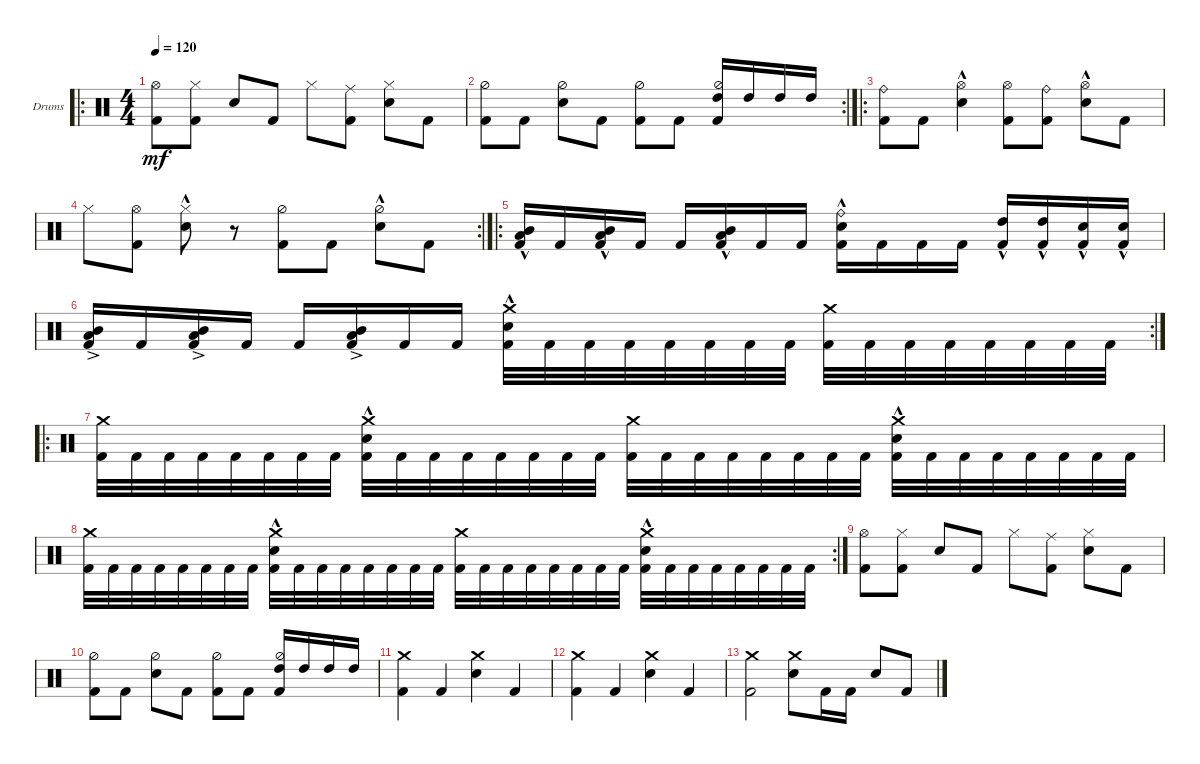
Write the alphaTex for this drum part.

\defaultSystemsLayout 4
\bracketExtendMode groupsimilarinstruments
\firstSystemTrackNameOrientation horizontal
\otherSystemsTrackNameOrientation horizontal
\track ("Drumkit" "Drums") {instrument percussion}
\staff {score}
\articulation defaults
\ro
\ts (4 4)
\tempo 120
\clef neutral
\ks c
("Hi-Hat (open)" "Kick (hit) 2").8{dy mf} ("Hi-Hat (closed)" "Kick (hit) 2").8 "Snare (hit) 2".8 "Kick (hit) 2".8 "Hi-Hat (closed)".8 ("Ride (middle)" "Kick (hit) 2").8 ("Hi-Hat (closed)" "Snare (hit) 2").8 "Kick (hit) 2".8 |
\rc 2
("Kick (hit) 2" "Hi-Hat (half)").8 "Kick (hit) 2".8 ("Snare (hit) 2" "Hi-Hat (half)").8 "Kick (hit) 2".8 ("Kick (hit) 2" "Hi-Hat (half)").8 "Kick (hit) 2".8 ("Hi-Hat (half)" "Kick (hit) 2" "High Tom (hit)").16 "High Tom (hit)".16 "High Tom (hit)".16 "High Tom (hit)".16 |
\ro
("Kick (hit) 2" "Ride (bell)").8 "Kick (hit) 2".8 ("Snare (hit) 2"{hac} "Hi-Hat (open)").4 ("Kick (hit) 2" "Hi-Hat (open)").8 ("Kick (hit) 2" "Ride (bell)").8 ("Hi-Hat (open)" "Snare (hit) 2"{hac}).8 "Kick (hit) 2".8 |
\rc 2 "Hi-Hat (closed)".8
("Hi-Hat (open)" "Kick (hit) 2").8 ("Snare (hit) 2"{hac} "Hi-Hat (closed)").8 r.8 ("Kick (hit) 2" "Hi-Hat (half)").8 "Kick (hit) 2".8 ("Snare (hit) 2"{hac} "Hi-Hat (half)").8 "Kick (hit) 2".8 |
\ro
("Kick (hit) 2" "Low Tom (hit)"{hac} "Mid Tom (hit)"{hac}).16 "Kick (hit) 2".16 ("Kick (hit) 2" "Low Tom (hit)"{hac} "Mid Tom (hit)"{hac}).16 "Kick (hit) 2".16 "Kick (hit) 2".16 ("Kick (hit) 2" "Low Tom (hit)"{hac} "Mid Tom (hit)"{hac}).16 "Kick (hit) 2".16 "Kick (hit) 2".16 ("Kick (hit) 2" "Snare (hit) 2"{hac} "Ride (bell)").16 "Kick (hit) 2".16 "Kick (hit) 2".16 "Kick (hit) 2".16 ("Kick (hit) 2" "High Tom (hit)"{hac}).16 ("Kick (hit) 2" "High Tom (hit)"{hac}).16 ("Kick (hit) 2" "Snare (hit) 2"{hac}).16 ("Kick (hit) 2" "Snare (hit) 2"{hac}).16 |
\rc 2
("Kick (hit) 2" "Low Tom (hit)"{ac} "Mid Tom (hit)"{ac}).16 "Kick (hit) 2".16 ("Kick (hit) 2" "Low Tom (hit)"{ac} "Mid Tom (hit)"{ac}).16 "Kick (hit) 2".16 "Kick (hit) 2".16 ("Kick (hit) 2" "Low Tom (hit)"{ac} "Mid Tom (hit)"{ac}).16 "Kick (hit) 2".16 "Kick (hit) 2".16 ("Kick (hit) 2" "Crash medium (hit)" "Snare (hit) 2"{hac}).32 "Kick (hit) 2".32 "Kick (hit) 2".32 "Kick (hit) 2".32 "Kick (hit) 2".32 "Kick (hit) 2".32 "Kick (hit) 2".32 "Kick (hit) 2".32 ("Kick (hit) 2" "Crash medium (hit)").32 "Kick (hit) 2".32 "Kick (hit) 2".32 "Kick (hit) 2".32 "Kick (hit) 2".32 "Kick (hit) 2".32 "Kick (hit) 2".32 "Kick (hit) 2".32 |
\ro
("Kick (hit) 2" "Crash medium (hit)").32 "Kick (hit) 2".32 "Kick (hit) 2".32 "Kick (hit) 2".32 "Kick (hit) 2".32 "Kick (hit) 2".32 "Kick (hit) 2".32 "Kick (hit) 2".32 ("Kick (hit) 2" "Crash medium (hit)" "Snare (hit) 2"{hac}).32 "Kick (hit) 2".32 "Kick (hit) 2".32 "Kick (hit) 2".32 "Kick (hit) 2".32 "Kick (hit) 2".32 "Kick (hit) 2".32 "Kick (hit) 2".32 ("Kick (hit) 2" "Crash medium (hit)").32 "Kick (hit) 2".32 "Kick (hit) 2".32 "Kick (hit) 2".32 "Kick (hit) 2".32 "Kick (hit) 2".32 "Kick (hit) 2".32 "Kick (hit) 2".32 ("Kick (hit) 2" "Crash medium (hit)" "Snare (hit) 2"{hac}).32 "Kick (hit) 2".32 "Kick (hit) 2".32 "Kick (hit) 2".32 "Kick (hit) 2".32 "Kick (hit) 2".32 "Kick (hit) 2".32 "Kick (hit) 2".32 |
\rc 2
("Kick (hit) 2" "Crash medium (hit)").32 "Kick (hit) 2".32 "Kick (hit) 2".32 "Kick (hit) 2".32 "Kick (hit) 2".32 "Kick (hit) 2".32 "Kick (hit) 2".32 "Kick (hit) 2".32 ("Kick (hit) 2" "Crash medium (hit)" "Snare (hit) 2"{hac}).32 "Kick (hit) 2".32 "Kick (hit) 2".32 "Kick (hit) 2".32 "Kick (hit) 2".32 "Kick (hit) 2".32 "Kick (hit) 2".32 "Kick (hit) 2".32 ("Kick (hit) 2" "Crash medium (hit)").32 "Kick (hit) 2".32 "Kick (hit) 2".32 "Kick (hit) 2".32 "Kick (hit) 2".32 "Kick (hit) 2".32 "Kick (hit) 2".32 "Kick (hit) 2".32 ("Kick (hit) 2" "Crash medium (hit)" "Snare (hit) 2"{hac}).32 "Kick (hit) 2".32 "Kick (hit) 2".32 "Kick (hit) 2".32 "Kick (hit) 2".32 "Kick (hit) 2".32 "Kick (hit) 2".32 "Kick (hit) 2".32 |
("Hi-Hat (open)" "Kick (hit) 2").8 ("Hi-Hat (closed)" "Kick (hit) 2").8 "Snare (hit) 2".8 "Kick (hit) 2".8 "Hi-Hat (closed)".8 ("Ride (middle)" "Kick (hit) 2").8 ("Hi-Hat (closed)" "Snare (hit) 2").8 "Kick (hit) 2".8 |
("Kick (hit) 2" "Hi-Hat (half)").8 "Kick (hit) 2".8 ("Snare (hit) 2" "Hi-Hat (half)").8 "Kick (hit) 2".8 ("Kick (hit) 2" "Hi-Hat (half)").8 "Kick (hit) 2".8 ("Hi-Hat (half)" "Kick (hit) 2" "High Tom (hit)").16 "High Tom (hit)".16 "High Tom (hit)".16 "High Tom (hit)".16 |
("Crash medium (hit)" "Kick (hit) 2").4 "Kick (hit) 2".4 ("Crash medium (hit)" "Snare (hit) 2").4 "Kick (hit) 2".4 |
("Crash medium (hit)" "Kick (hit) 2").4 "Kick (hit) 2".4 ("Crash medium (hit)" "Snare (hit) 2").4 "Kick (hit) 2".4 |
("Crash medium (hit)" "Kick (hit) 2").2 ("Crash medium (hit)" "Snare (hit) 2").8 "Kick (hit) 2".16 "Kick (hit) 2".16 "Snare (hit) 2".8 "Kick (hit) 2".8
